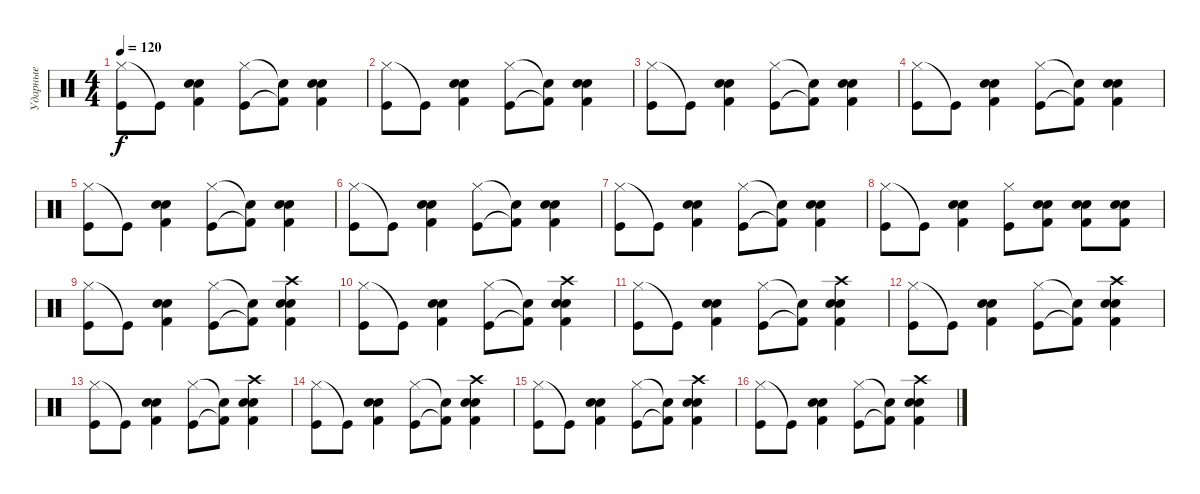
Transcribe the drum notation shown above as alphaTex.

\track ("Ударные" "Ударные") {instrument percussion}
\staff {score}
\articulation defaults
\ts (4 4)
\tempo 120
\clef neutral
\ks c
("Hi-Hat (closed)" "Kick (hit)").8{dy f} "Kick (hit)"{t}.8 ("Snare (hit) 2" "Kick (hit) 2" "Electric Snare (hit)").4 ("Hi-Hat (closed)" "Kick (hit)").8 ("Snare (hit) 2"{t} "Kick (hit) 2"{t}).8 ("Snare (hit) 2" "Kick (hit) 2" "Electric Snare (hit)").4 |
("Hi-Hat (closed)" "Kick (hit)").8 "Kick (hit)"{t}.8 ("Snare (hit) 2" "Kick (hit) 2" "Electric Snare (hit)").4 ("Hi-Hat (closed)" "Kick (hit)").8 ("Snare (hit) 2"{t} "Kick (hit) 2"{t}).8 ("Snare (hit) 2" "Kick (hit) 2" "Electric Snare (hit)").4 |
("Hi-Hat (closed)" "Kick (hit)").8 "Kick (hit)"{t}.8 ("Snare (hit) 2" "Kick (hit) 2" "Electric Snare (hit)").4 ("Hi-Hat (closed)" "Kick (hit)").8 ("Snare (hit) 2"{t} "Kick (hit) 2"{t}).8 ("Snare (hit) 2" "Kick (hit) 2" "Electric Snare (hit)").4 |
("Hi-Hat (closed)" "Kick (hit)").8 "Kick (hit)"{t}.8 ("Snare (hit) 2" "Kick (hit) 2" "Electric Snare (hit)").4 ("Hi-Hat (closed)" "Kick (hit)").8 ("Snare (hit) 2"{t} "Kick (hit) 2"{t}).8 ("Snare (hit) 2" "Kick (hit) 2" "Electric Snare (hit)").4 |
("Hi-Hat (closed)" "Kick (hit)").8 "Kick (hit)"{t}.8 ("Snare (hit) 2" "Kick (hit) 2" "Electric Snare (hit)").4 ("Hi-Hat (closed)" "Kick (hit)").8 ("Snare (hit) 2"{t} "Kick (hit) 2"{t}).8 ("Snare (hit) 2" "Kick (hit) 2" "Electric Snare (hit)").4 |
("Hi-Hat (closed)" "Kick (hit)").8 "Kick (hit)"{t}.8 ("Snare (hit) 2" "Kick (hit) 2" "Electric Snare (hit)").4 ("Hi-Hat (closed)" "Kick (hit)").8 ("Snare (hit) 2"{t} "Kick (hit) 2"{t}).8 ("Snare (hit) 2" "Kick (hit) 2" "Electric Snare (hit)").4 |
("Hi-Hat (closed)" "Kick (hit)").8 "Kick (hit)"{t}.8 ("Snare (hit) 2" "Kick (hit) 2" "Electric Snare (hit)").4 ("Hi-Hat (closed)" "Kick (hit)").8 ("Snare (hit) 2"{t} "Kick (hit) 2"{t}).8 ("Snare (hit) 2" "Kick (hit) 2" "Electric Snare (hit)").4 |
("Hi-Hat (closed)" "Kick (hit)").8 "Kick (hit)"{t}.8 ("Snare (hit) 2" "Kick (hit) 2" "Electric Snare (hit)").4 ("Hi-Hat (closed)" "Kick (hit)").8 ("Snare (hit) 2" "Kick (hit) 2" "Electric Snare (hit)").8 ("Snare (hit) 2" "Kick (hit) 2" "Electric Snare (hit)").8 ("Snare (hit) 2" "Kick (hit) 2" "Electric Snare (hit)").8 |
("Hi-Hat (closed)" "Kick (hit)").8 "Kick (hit)"{t}.8 ("Snare (hit) 2" "Kick (hit) 2" "Electric Snare (hit)").4 ("Hi-Hat (closed)" "Kick (hit)").8 ("Snare (hit) 2"{t} "Kick (hit) 2"{t}).8 ("Snare (hit) 2" "Kick (hit) 2" "Electric Snare (hit)" "Crash high (hit)").4 |
("Hi-Hat (closed)" "Kick (hit)").8 "Kick (hit)"{t}.8 ("Snare (hit) 2" "Kick (hit) 2" "Electric Snare (hit)").4 ("Hi-Hat (closed)" "Kick (hit)").8 ("Snare (hit) 2"{t} "Kick (hit) 2"{t}).8 ("Snare (hit) 2" "Kick (hit) 2" "Electric Snare (hit)" "Crash high (hit)").4 |
("Hi-Hat (closed)" "Kick (hit)").8 "Kick (hit)"{t}.8 ("Snare (hit) 2" "Kick (hit) 2" "Electric Snare (hit)").4 ("Hi-Hat (closed)" "Kick (hit)").8 ("Snare (hit) 2"{t} "Kick (hit) 2"{t}).8 ("Snare (hit) 2" "Kick (hit) 2" "Electric Snare (hit)" "Crash high (hit)").4 |
("Hi-Hat (closed)" "Kick (hit)").8 "Kick (hit)"{t}.8 ("Snare (hit) 2" "Kick (hit) 2" "Electric Snare (hit)").4 ("Hi-Hat (closed)" "Kick (hit)").8 ("Snare (hit) 2"{t} "Kick (hit) 2"{t}).8 ("Snare (hit) 2" "Kick (hit) 2" "Electric Snare (hit)" "Crash high (hit)").4 |
("Hi-Hat (closed)" "Kick (hit)").8 "Kick (hit)"{t}.8 ("Snare (hit) 2" "Kick (hit) 2" "Electric Snare (hit)").4 ("Hi-Hat (closed)" "Kick (hit)").8 ("Snare (hit) 2"{t} "Kick (hit) 2"{t}).8 ("Snare (hit) 2" "Kick (hit) 2" "Electric Snare (hit)" "Crash high (hit)").4 |
("Hi-Hat (closed)" "Kick (hit)").8 "Kick (hit)"{t}.8 ("Snare (hit) 2" "Kick (hit) 2" "Electric Snare (hit)").4 ("Hi-Hat (closed)" "Kick (hit)").8 ("Snare (hit) 2"{t} "Kick (hit) 2"{t}).8 ("Snare (hit) 2" "Kick (hit) 2" "Electric Snare (hit)" "Crash high (hit)").4 |
("Hi-Hat (closed)" "Kick (hit)").8 "Kick (hit)"{t}.8 ("Snare (hit) 2" "Kick (hit) 2" "Electric Snare (hit)").4 ("Hi-Hat (closed)" "Kick (hit)").8 ("Snare (hit) 2"{t} "Kick (hit) 2"{t}).8 ("Snare (hit) 2" "Kick (hit) 2" "Electric Snare (hit)" "Crash high (hit)").4 |
("Hi-Hat (closed)" "Kick (hit)").8 "Kick (hit)"{t}.8 ("Snare (hit) 2" "Kick (hit) 2" "Electric Snare (hit)").4 ("Hi-Hat (closed)" "Kick (hit)").8 ("Snare (hit) 2"{t} "Kick (hit) 2"{t}).8 ("Snare (hit) 2" "Kick (hit) 2" "Electric Snare (hit)" "Crash high (hit)").4
